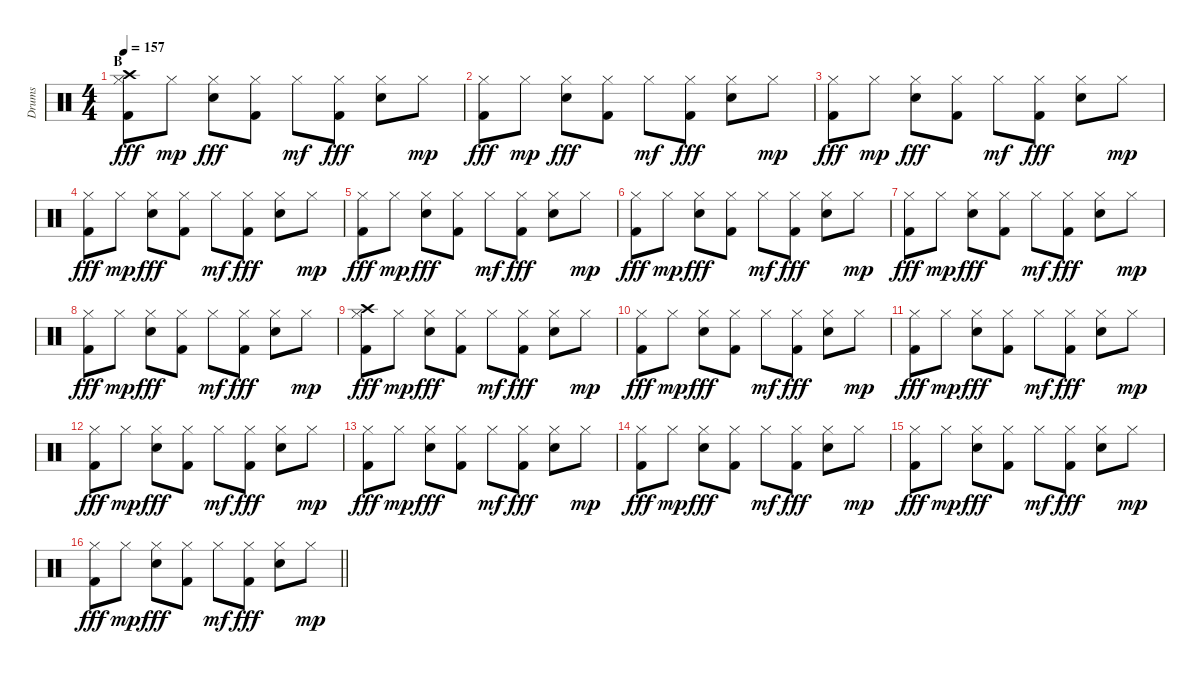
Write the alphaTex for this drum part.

\track ("Drums" "Drums") {instrument percussion}
\staff
\articulation defaults
\ts (4 4)
\section ("" "B")
\tempo 157
\clef neutral
\ks c
("Hi-Hat (closed)" "Crash high (hit)" "Kick (hit) 2").8{dy fff} "Hi-Hat (closed)".8{dy mp} ("Hi-Hat (closed)" "Electric Snare (hit)").8{dy fff} ("Hi-Hat (closed)" "Kick (hit) 2").8 "Hi-Hat (closed)".8{dy mf} ("Hi-Hat (closed)" "Kick (hit) 2").8{dy fff} ("Hi-Hat (closed)" "Electric Snare (hit)").8 "Hi-Hat (closed)".8{dy mp} |
("Hi-Hat (closed)" "Kick (hit) 2").8{dy fff} "Hi-Hat (closed)".8{dy mp} ("Hi-Hat (closed)" "Electric Snare (hit)").8{dy fff} ("Hi-Hat (closed)" "Kick (hit) 2").8 "Hi-Hat (closed)".8{dy mf} ("Hi-Hat (closed)" "Kick (hit) 2").8{dy fff} ("Hi-Hat (closed)" "Electric Snare (hit)").8 "Hi-Hat (closed)".8{dy mp} |
("Hi-Hat (closed)" "Kick (hit) 2").8{dy fff} "Hi-Hat (closed)".8{dy mp} ("Hi-Hat (closed)" "Electric Snare (hit)").8{dy fff} ("Hi-Hat (closed)" "Kick (hit) 2").8 "Hi-Hat (closed)".8{dy mf} ("Hi-Hat (closed)" "Kick (hit) 2").8{dy fff} ("Hi-Hat (closed)" "Electric Snare (hit)").8 "Hi-Hat (closed)".8{dy mp} |
("Hi-Hat (closed)" "Kick (hit) 2").8{dy fff} "Hi-Hat (closed)".8{dy mp} ("Hi-Hat (closed)" "Electric Snare (hit)").8{dy fff} ("Hi-Hat (closed)" "Kick (hit) 2").8 "Hi-Hat (closed)".8{dy mf} ("Hi-Hat (closed)" "Kick (hit) 2").8{dy fff} ("Hi-Hat (closed)" "Electric Snare (hit)").8 "Hi-Hat (closed)".8{dy mp} |
("Hi-Hat (closed)" "Kick (hit) 2").8{dy fff} "Hi-Hat (closed)".8{dy mp} ("Hi-Hat (closed)" "Electric Snare (hit)").8{dy fff} ("Hi-Hat (closed)" "Kick (hit) 2").8 "Hi-Hat (closed)".8{dy mf} ("Hi-Hat (closed)" "Kick (hit) 2").8{dy fff} ("Hi-Hat (closed)" "Electric Snare (hit)").8 "Hi-Hat (closed)".8{dy mp} |
("Hi-Hat (closed)" "Kick (hit) 2").8{dy fff} "Hi-Hat (closed)".8{dy mp} ("Hi-Hat (closed)" "Electric Snare (hit)").8{dy fff} ("Hi-Hat (closed)" "Kick (hit) 2").8 "Hi-Hat (closed)".8{dy mf} ("Hi-Hat (closed)" "Kick (hit) 2").8{dy fff} ("Hi-Hat (closed)" "Electric Snare (hit)").8 "Hi-Hat (closed)".8{dy mp} |
("Hi-Hat (closed)" "Kick (hit) 2").8{dy fff} "Hi-Hat (closed)".8{dy mp} ("Hi-Hat (closed)" "Electric Snare (hit)").8{dy fff} ("Hi-Hat (closed)" "Kick (hit) 2").8 "Hi-Hat (closed)".8{dy mf} ("Hi-Hat (closed)" "Kick (hit) 2").8{dy fff} ("Hi-Hat (closed)" "Electric Snare (hit)").8 "Hi-Hat (closed)".8{dy mp} |
("Hi-Hat (closed)" "Kick (hit) 2").8{dy fff} "Hi-Hat (closed)".8{dy mp} ("Hi-Hat (closed)" "Electric Snare (hit)").8{dy fff} ("Hi-Hat (closed)" "Kick (hit) 2").8 "Hi-Hat (closed)".8{dy mf} ("Hi-Hat (closed)" "Kick (hit) 2").8{dy fff} ("Hi-Hat (closed)" "Electric Snare (hit)").8 "Hi-Hat (closed)".8{dy mp} |
("Hi-Hat (closed)" "Crash high (hit)" "Kick (hit) 2").8{dy fff} "Hi-Hat (closed)".8{dy mp} ("Hi-Hat (closed)" "Electric Snare (hit)").8{dy fff} ("Hi-Hat (closed)" "Kick (hit) 2").8 "Hi-Hat (closed)".8{dy mf} ("Hi-Hat (closed)" "Kick (hit) 2").8{dy fff} ("Hi-Hat (closed)" "Electric Snare (hit)").8 "Hi-Hat (closed)".8{dy mp} |
("Hi-Hat (closed)" "Kick (hit) 2").8{dy fff} "Hi-Hat (closed)".8{dy mp} ("Hi-Hat (closed)" "Electric Snare (hit)").8{dy fff} ("Hi-Hat (closed)" "Kick (hit) 2").8 "Hi-Hat (closed)".8{dy mf} ("Hi-Hat (closed)" "Kick (hit) 2").8{dy fff} ("Hi-Hat (closed)" "Electric Snare (hit)").8 "Hi-Hat (closed)".8{dy mp} |
("Hi-Hat (closed)" "Kick (hit) 2").8{dy fff} "Hi-Hat (closed)".8{dy mp} ("Hi-Hat (closed)" "Electric Snare (hit)").8{dy fff} ("Hi-Hat (closed)" "Kick (hit) 2").8 "Hi-Hat (closed)".8{dy mf} ("Hi-Hat (closed)" "Kick (hit) 2").8{dy fff} ("Hi-Hat (closed)" "Electric Snare (hit)").8 "Hi-Hat (closed)".8{dy mp} |
("Hi-Hat (closed)" "Kick (hit) 2").8{dy fff} "Hi-Hat (closed)".8{dy mp} ("Hi-Hat (closed)" "Electric Snare (hit)").8{dy fff} ("Hi-Hat (closed)" "Kick (hit) 2").8 "Hi-Hat (closed)".8{dy mf} ("Hi-Hat (closed)" "Kick (hit) 2").8{dy fff} ("Hi-Hat (closed)" "Electric Snare (hit)").8 "Hi-Hat (closed)".8{dy mp} |
("Hi-Hat (closed)" "Kick (hit) 2").8{dy fff} "Hi-Hat (closed)".8{dy mp} ("Hi-Hat (closed)" "Electric Snare (hit)").8{dy fff} ("Hi-Hat (closed)" "Kick (hit) 2").8 "Hi-Hat (closed)".8{dy mf} ("Hi-Hat (closed)" "Kick (hit) 2").8{dy fff} ("Hi-Hat (closed)" "Electric Snare (hit)").8 "Hi-Hat (closed)".8{dy mp} |
("Hi-Hat (closed)" "Kick (hit) 2").8{dy fff} "Hi-Hat (closed)".8{dy mp} ("Hi-Hat (closed)" "Electric Snare (hit)").8{dy fff} ("Hi-Hat (closed)" "Kick (hit) 2").8 "Hi-Hat (closed)".8{dy mf} ("Hi-Hat (closed)" "Kick (hit) 2").8{dy fff} ("Hi-Hat (closed)" "Electric Snare (hit)").8 "Hi-Hat (closed)".8{dy mp} |
("Hi-Hat (closed)" "Kick (hit) 2").8{dy fff} "Hi-Hat (closed)".8{dy mp} ("Hi-Hat (closed)" "Electric Snare (hit)").8{dy fff} ("Hi-Hat (closed)" "Kick (hit) 2").8 "Hi-Hat (closed)".8{dy mf} ("Hi-Hat (closed)" "Kick (hit) 2").8{dy fff} ("Hi-Hat (closed)" "Electric Snare (hit)").8 "Hi-Hat (closed)".8{dy mp} |
\barLineRight lightlight
("Hi-Hat (closed)" "Kick (hit) 2").8{dy fff} "Hi-Hat (closed)".8{dy mp} ("Hi-Hat (closed)" "Electric Snare (hit)").8{dy fff} ("Hi-Hat (closed)" "Kick (hit) 2").8 "Hi-Hat (closed)".8{dy mf} ("Hi-Hat (closed)" "Kick (hit) 2").8{dy fff} ("Hi-Hat (closed)" "Electric Snare (hit)").8 "Hi-Hat (closed)".8{dy mp}
